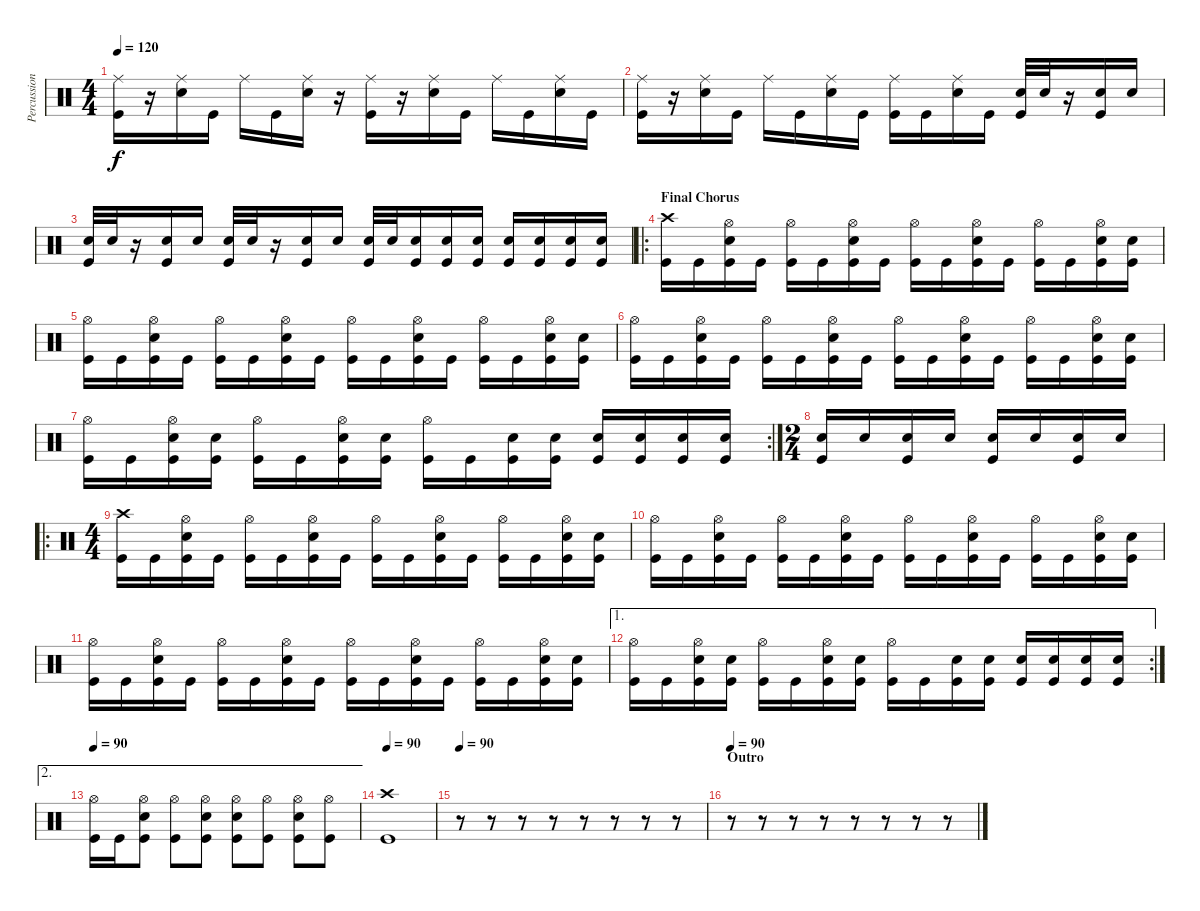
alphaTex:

\track ("Percussion" "Percussion") {instrument percussion}
\staff {score}
\articulation defaults
\ts (4 4)
\tempo 120
\clef neutral
\ks c
("Ride (middle)" "Kick (hit)").16{dy f} r.16 ("Ride (middle)" "Snare (hit) 2").16 "Kick (hit)".16 "Ride (middle)".16 "Kick (hit)".16 ("Ride (middle)" "Snare (hit) 2").16 r.16 ("Ride (middle)" "Kick (hit)").16 r.16 ("Ride (middle)" "Snare (hit) 2").16 "Kick (hit)".16 "Ride (middle)".16 "Kick (hit)".16 ("Ride (middle)" "Snare (hit) 2").16 "Kick (hit)".16 |
("Ride (middle)" "Kick (hit)").16 r.16 ("Ride (middle)" "Snare (hit) 2").16 "Kick (hit)".16 "Ride (middle)".16 "Kick (hit)".16 ("Ride (middle)" "Snare (hit) 2").16 "Kick (hit)".16 ("Ride (middle)" "Kick (hit)").16 "Kick (hit)".16 ("Ride (middle)" "Snare (hit) 2").16 "Kick (hit)".16 ("Snare (hit) 2" "Kick (hit)").32 "Snare (hit) 2".32 r.16 ("Snare (hit) 2" "Kick (hit)").16 "Snare (hit) 2".16 |
("Snare (hit) 2" "Kick (hit)").32 "Snare (hit) 2".32 r.16 ("Snare (hit) 2" "Kick (hit)").16 "Snare (hit) 2".16 ("Snare (hit) 2" "Kick (hit)").32 "Snare (hit) 2".32 r.16 ("Snare (hit) 2" "Kick (hit)").16 "Snare (hit) 2".16 ("Snare (hit) 2" "Kick (hit)").32 "Snare (hit) 2".32 ("Snare (hit) 2" "Kick (hit)").16 ("Snare (hit) 2" "Kick (hit)").16 ("Snare (hit) 2" "Kick (hit)").16 ("Snare (hit) 2" "Kick (hit)").16 ("Snare (hit) 2" "Kick (hit)").16 ("Snare (hit) 2" "Kick (hit)").16 ("Snare (hit) 2" "Kick (hit)").16 |
\ro
\section ("" "Final Chorus")
("Crash high (hit)" "Kick (hit)").16 "Kick (hit)".16 ("Hi-Hat (open)" "Snare (hit) 2" "Kick (hit)").16 "Kick (hit)".16 ("Hi-Hat (open)" "Kick (hit)").16 "Kick (hit)".16 ("Hi-Hat (open)" "Snare (hit) 2" "Kick (hit)").16 "Kick (hit)".16 ("Hi-Hat (open)" "Kick (hit)").16 "Kick (hit)".16 ("Hi-Hat (open)" "Snare (hit) 2" "Kick (hit)").16 "Kick (hit)".16 ("Hi-Hat (open)" "Kick (hit)").16 "Kick (hit)".16 ("Hi-Hat (open)" "Snare (hit) 2" "Kick (hit)").16 ("Snare (hit) 2" "Kick (hit)").16 |
("Hi-Hat (open)" "Kick (hit)").16 "Kick (hit)".16 ("Hi-Hat (open)" "Snare (hit) 2" "Kick (hit)").16 "Kick (hit)".16 ("Hi-Hat (open)" "Kick (hit)").16 "Kick (hit)".16 ("Hi-Hat (open)" "Snare (hit) 2" "Kick (hit)").16 "Kick (hit)".16 ("Hi-Hat (open)" "Kick (hit)").16 "Kick (hit)".16 ("Hi-Hat (open)" "Snare (hit) 2" "Kick (hit)").16 "Kick (hit)".16 ("Hi-Hat (open)" "Kick (hit)").16 "Kick (hit)".16 ("Hi-Hat (open)" "Snare (hit) 2" "Kick (hit)").16 ("Snare (hit) 2" "Kick (hit)").16 |
("Hi-Hat (open)" "Kick (hit)").16 "Kick (hit)".16 ("Hi-Hat (open)" "Snare (hit) 2" "Kick (hit)").16 "Kick (hit)".16 ("Hi-Hat (open)" "Kick (hit)").16 "Kick (hit)".16 ("Hi-Hat (open)" "Snare (hit) 2" "Kick (hit)").16 "Kick (hit)".16 ("Hi-Hat (open)" "Kick (hit)").16 "Kick (hit)".16 ("Hi-Hat (open)" "Snare (hit) 2" "Kick (hit)").16 "Kick (hit)".16 ("Hi-Hat (open)" "Kick (hit)").16 "Kick (hit)".16 ("Hi-Hat (open)" "Snare (hit) 2" "Kick (hit)").16 ("Snare (hit) 2" "Kick (hit)").16 |
\rc 2
("Hi-Hat (open)" "Kick (hit)").16 "Kick (hit)".16 ("Hi-Hat (open)" "Snare (hit) 2" "Kick (hit)").16 ("Snare (hit) 2" "Kick (hit)").16 ("Hi-Hat (open)" "Kick (hit)").16 "Kick (hit)".16 ("Hi-Hat (open)" "Snare (hit) 2" "Kick (hit)").16 ("Snare (hit) 2" "Kick (hit)").16 ("Hi-Hat (open)" "Kick (hit)").16 "Kick (hit)".16 ("Snare (hit) 2" "Kick (hit)").16 ("Snare (hit) 2" "Kick (hit)").16 ("Snare (hit) 2" "Kick (hit)").16 ("Snare (hit) 2" "Kick (hit)").16 ("Snare (hit) 2" "Kick (hit)").16 ("Snare (hit) 2" "Kick (hit)").16 |
\ts (2 4)
("Snare (hit) 2" "Kick (hit)").16 "Snare (hit) 2".16 ("Snare (hit) 2" "Kick (hit)").16 "Snare (hit) 2".16 ("Snare (hit) 2" "Kick (hit)").16 "Snare (hit) 2".16 ("Snare (hit) 2" "Kick (hit)").16 "Snare (hit) 2".16 |
\ro
\ts (4 4)
("Crash high (hit)" "Kick (hit)").16 "Kick (hit)".16 ("Hi-Hat (open)" "Snare (hit) 2" "Kick (hit)").16 "Kick (hit)".16 ("Hi-Hat (open)" "Kick (hit)").16 "Kick (hit)".16 ("Hi-Hat (open)" "Snare (hit) 2" "Kick (hit)").16 "Kick (hit)".16 ("Hi-Hat (open)" "Kick (hit)").16 "Kick (hit)".16 ("Hi-Hat (open)" "Snare (hit) 2" "Kick (hit)").16 "Kick (hit)".16 ("Hi-Hat (open)" "Kick (hit)").16 "Kick (hit)".16 ("Hi-Hat (open)" "Snare (hit) 2" "Kick (hit)").16 ("Snare (hit) 2" "Kick (hit)").16 |
("Hi-Hat (open)" "Kick (hit)").16 "Kick (hit)".16 ("Hi-Hat (open)" "Snare (hit) 2" "Kick (hit)").16 "Kick (hit)".16 ("Hi-Hat (open)" "Kick (hit)").16 "Kick (hit)".16 ("Hi-Hat (open)" "Snare (hit) 2" "Kick (hit)").16 "Kick (hit)".16 ("Hi-Hat (open)" "Kick (hit)").16 "Kick (hit)".16 ("Hi-Hat (open)" "Snare (hit) 2" "Kick (hit)").16 "Kick (hit)".16 ("Hi-Hat (open)" "Kick (hit)").16 "Kick (hit)".16 ("Hi-Hat (open)" "Snare (hit) 2" "Kick (hit)").16 ("Snare (hit) 2" "Kick (hit)").16 |
("Hi-Hat (open)" "Kick (hit)").16 "Kick (hit)".16 ("Hi-Hat (open)" "Snare (hit) 2" "Kick (hit)").16 "Kick (hit)".16 ("Hi-Hat (open)" "Kick (hit)").16 "Kick (hit)".16 ("Hi-Hat (open)" "Snare (hit) 2" "Kick (hit)").16 "Kick (hit)".16 ("Hi-Hat (open)" "Kick (hit)").16 "Kick (hit)".16 ("Hi-Hat (open)" "Snare (hit) 2" "Kick (hit)").16 "Kick (hit)".16 ("Hi-Hat (open)" "Kick (hit)").16 "Kick (hit)".16 ("Hi-Hat (open)" "Snare (hit) 2" "Kick (hit)").16 ("Snare (hit) 2" "Kick (hit)").16 |
\ae 1
\rc 2
("Hi-Hat (open)" "Kick (hit)").16 "Kick (hit)".16 ("Hi-Hat (open)" "Snare (hit) 2" "Kick (hit)").16 ("Snare (hit) 2" "Kick (hit)").16 ("Hi-Hat (open)" "Kick (hit)").16 "Kick (hit)".16 ("Hi-Hat (open)" "Snare (hit) 2" "Kick (hit)").16 ("Snare (hit) 2" "Kick (hit)").16 ("Hi-Hat (open)" "Kick (hit)").16 "Kick (hit)".16 ("Snare (hit) 2" "Kick (hit)").16 ("Snare (hit) 2" "Kick (hit)").16 ("Snare (hit) 2" "Kick (hit)").16 ("Snare (hit) 2" "Kick (hit)").16 ("Snare (hit) 2" "Kick (hit)").16 ("Snare (hit) 2" "Kick (hit)").16 |
\ae 2
\tempo 90
("Hi-Hat (open)" "Kick (hit)").16 "Kick (hit)".16 ("Hi-Hat (open)" "Snare (hit) 2" "Kick (hit)").8 ("Hi-Hat (open)" "Kick (hit)").8 ("Hi-Hat (open)" "Snare (hit) 2" "Kick (hit)").8 ("Hi-Hat (open)" "Snare (hit) 2" "Kick (hit)").8 ("Hi-Hat (open)" "Kick (hit)").8 ("Hi-Hat (open)" "Snare (hit) 2" "Kick (hit)").8 ("Hi-Hat (open)" "Kick (hit)").8 |
\tempo 90
("Crash high (hit)" "Kick (hit)").1 |
\tempo 90
r.8 r.8 r.8 r.8 r.8 r.8 r.8 r.8 |
\section ("" "Outro")
\tempo 90
r.8 r.8 r.8 r.8 r.8 r.8 r.8 r.8
